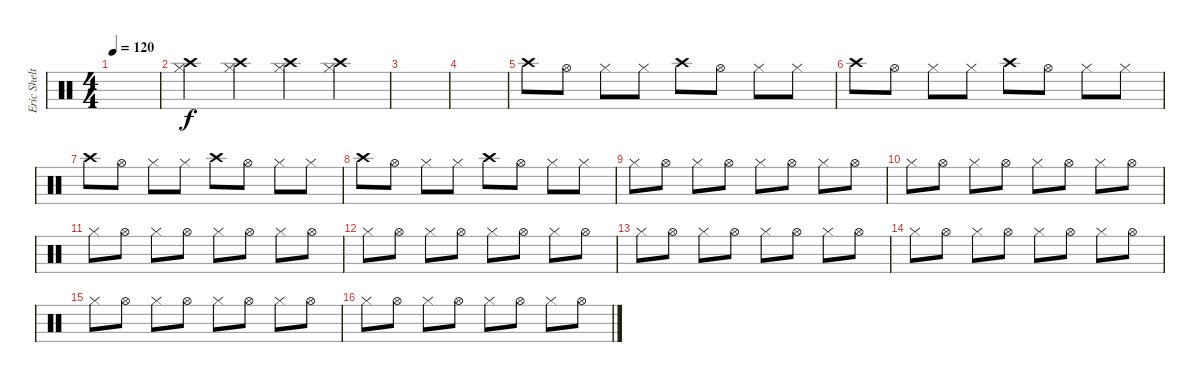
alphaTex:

\track ("Eric Shelton" "Eric Shelt") {instrument percussion}
\staff {score}
\articulation defaults
\ts (4 4)
\tempo 120
\clef neutral
\ks c
|
("Hi-Hat (closed)" "Crash high (hit)").4 ("Hi-Hat (closed)" "Crash high (hit)").4 ("Hi-Hat (closed)" "Crash high (hit)").4 ("Hi-Hat (closed)" "Crash high (hit)").4 |
|
|
"Crash high (hit)".8 "Hi-Hat (open)".8 "Hi-Hat (closed)".8 "Hi-Hat (closed)".8 "Crash high (hit)".8 "Hi-Hat (open)".8 "Hi-Hat (closed)".8 "Hi-Hat (closed)".8 |
"Crash high (hit)".8 "Hi-Hat (open)".8 "Hi-Hat (closed)".8 "Hi-Hat (closed)".8 "Crash high (hit)".8 "Hi-Hat (open)".8 "Hi-Hat (closed)".8 "Hi-Hat (closed)".8 |
"Crash high (hit)".8 "Hi-Hat (open)".8 "Hi-Hat (closed)".8 "Hi-Hat (closed)".8 "Crash high (hit)".8 "Hi-Hat (open)".8 "Hi-Hat (closed)".8 "Hi-Hat (closed)".8 |
"Crash high (hit)".8 "Hi-Hat (open)".8 "Hi-Hat (closed)".8 "Hi-Hat (closed)".8 "Crash high (hit)".8 "Hi-Hat (open)".8 "Hi-Hat (closed)".8 "Hi-Hat (closed)".8 |
"Hi-Hat (closed)".8 "Hi-Hat (open)".8 "Hi-Hat (closed)".8 "Hi-Hat (open)".8 "Hi-Hat (closed)".8 "Hi-Hat (open)".8 "Hi-Hat (closed)".8 "Hi-Hat (open)".8 |
"Hi-Hat (closed)".8 "Hi-Hat (open)".8 "Hi-Hat (closed)".8 "Hi-Hat (open)".8 "Hi-Hat (closed)".8 "Hi-Hat (open)".8 "Hi-Hat (closed)".8 "Hi-Hat (open)".8 |
"Hi-Hat (closed)".8 "Hi-Hat (open)".8 "Hi-Hat (closed)".8 "Hi-Hat (open)".8 "Hi-Hat (closed)".8 "Hi-Hat (open)".8 "Hi-Hat (closed)".8 "Hi-Hat (open)".8 |
"Hi-Hat (closed)".8 "Hi-Hat (open)".8 "Hi-Hat (closed)".8 "Hi-Hat (open)".8 "Hi-Hat (closed)".8 "Hi-Hat (open)".8 "Hi-Hat (closed)".8 "Hi-Hat (open)".8 |
"Hi-Hat (closed)".8 "Hi-Hat (open)".8 "Hi-Hat (closed)".8 "Hi-Hat (open)".8 "Hi-Hat (closed)".8 "Hi-Hat (open)".8 "Hi-Hat (closed)".8 "Hi-Hat (open)".8 |
"Hi-Hat (closed)".8 "Hi-Hat (open)".8 "Hi-Hat (closed)".8 "Hi-Hat (open)".8 "Hi-Hat (closed)".8 "Hi-Hat (open)".8 "Hi-Hat (closed)".8 "Hi-Hat (open)".8 |
"Hi-Hat (closed)".8 "Hi-Hat (open)".8 "Hi-Hat (closed)".8 "Hi-Hat (open)".8 "Hi-Hat (closed)".8 "Hi-Hat (open)".8 "Hi-Hat (closed)".8 "Hi-Hat (open)".8 |
"Hi-Hat (closed)".8 "Hi-Hat (open)".8 "Hi-Hat (closed)".8 "Hi-Hat (open)".8 "Hi-Hat (closed)".8 "Hi-Hat (open)".8 "Hi-Hat (closed)".8 "Hi-Hat (open)".8
